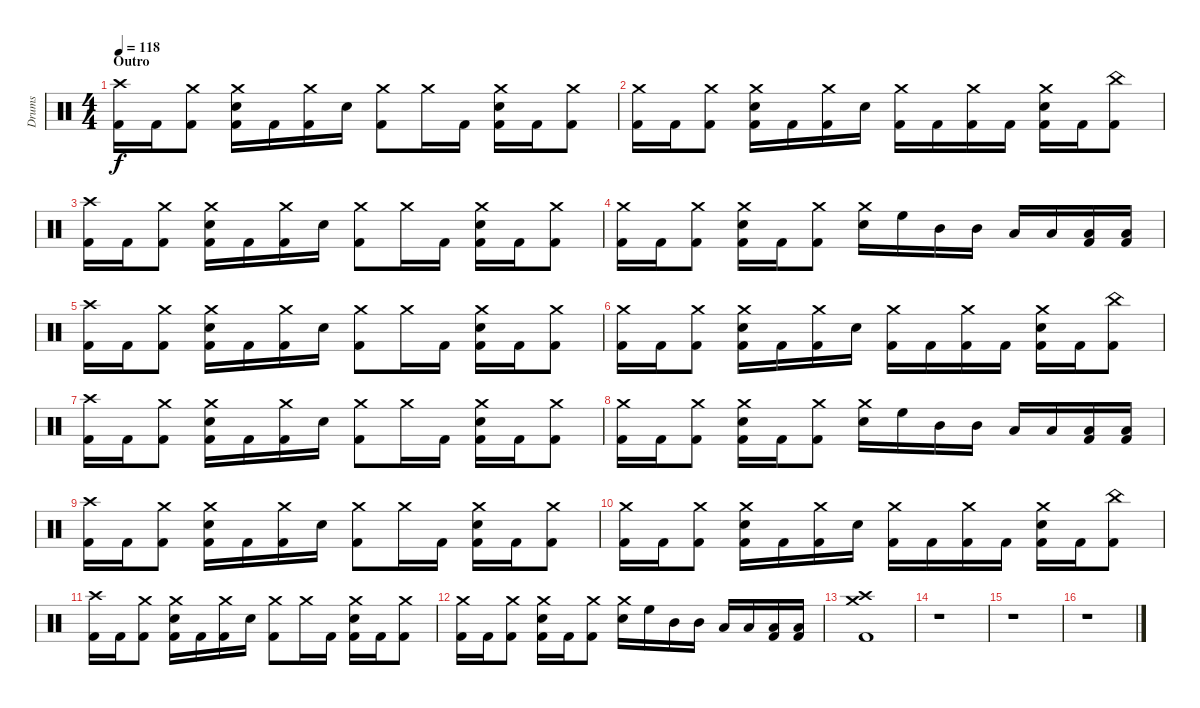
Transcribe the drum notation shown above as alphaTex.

\track ("Drums" "Drums") {instrument percussion}
\staff {score}
\articulation defaults
\ts (4 4)
\section ("" "Outro")
\tempo 118
\clef neutral
\ks c
("Crash high (hit)" "Kick (hit) 2").16{dy f} "Kick (hit) 2".16 ("Crash medium (hit)" "Kick (hit) 2").8 ("Crash medium (hit)" "Snare (hit) 2" "Kick (hit) 2").16 "Kick (hit) 2".16 ("Crash medium (hit)" "Kick (hit) 2").16 "Snare (hit) 2".16 ("Crash medium (hit)" "Kick (hit) 2").8 "Crash medium (hit)".16 "Kick (hit) 2".16 ("Crash medium (hit)" "Snare (hit) 2" "Kick (hit) 2").16 "Kick (hit) 2".16 ("Crash medium (hit)" "Kick (hit) 2").8 |
("Crash medium (hit)" "Kick (hit) 2").16 "Kick (hit) 2".16 ("Crash medium (hit)" "Kick (hit) 2").8 ("Crash medium (hit)" "Snare (hit) 2" "Kick (hit) 2").16 "Kick (hit) 2".16 ("Crash medium (hit)" "Kick (hit) 2").16 "Snare (hit) 2".16 ("Crash medium (hit)" "Kick (hit) 2").16 "Kick (hit) 2".16 ("Crash medium (hit)" "Kick (hit) 2").16 "Kick (hit) 2".16 ("Crash medium (hit)" "Snare (hit) 2" "Kick (hit) 2").16 "Kick (hit) 2".16 ("China (hit)" "Kick (hit) 2").8 |
("Crash high (hit)" "Kick (hit) 2").16 "Kick (hit) 2".16 ("Crash medium (hit)" "Kick (hit) 2").8 ("Crash medium (hit)" "Snare (hit) 2" "Kick (hit) 2").16 "Kick (hit) 2".16 ("Crash medium (hit)" "Kick (hit) 2").16 "Snare (hit) 2".16 ("Crash medium (hit)" "Kick (hit) 2").8 "Crash medium (hit)".16 "Kick (hit) 2".16 ("Crash medium (hit)" "Snare (hit) 2" "Kick (hit) 2").16 "Kick (hit) 2".16 ("Crash medium (hit)" "Kick (hit) 2").8 |
("Crash medium (hit)" "Kick (hit) 2").16 "Kick (hit) 2".16 ("Crash medium (hit)" "Kick (hit) 2").8 ("Crash medium (hit)" "Snare (hit) 2" "Kick (hit) 2").16 "Kick (hit) 2".16 ("Crash medium (hit)" "Kick (hit) 2").8 ("Crash medium (hit)" "Snare (hit) 2").16 "High Floor Tom (hit)".16 "Mid Tom (hit)".16 "Mid Tom (hit)".16 "Low Tom (hit)".16 "Low Tom (hit)".16 ("Low Floor Tom (hit)" "Kick (hit) 2").16 ("Low Floor Tom (hit)" "Kick (hit) 2").16 |
("Crash high (hit)" "Kick (hit) 2").16 "Kick (hit) 2".16 ("Crash medium (hit)" "Kick (hit) 2").8 ("Crash medium (hit)" "Snare (hit) 2" "Kick (hit) 2").16 "Kick (hit) 2".16 ("Crash medium (hit)" "Kick (hit) 2").16 "Snare (hit) 2".16 ("Crash medium (hit)" "Kick (hit) 2").8 "Crash medium (hit)".16 "Kick (hit) 2".16 ("Crash medium (hit)" "Snare (hit) 2" "Kick (hit) 2").16 "Kick (hit) 2".16 ("Crash medium (hit)" "Kick (hit) 2").8 |
("Crash medium (hit)" "Kick (hit) 2").16 "Kick (hit) 2".16 ("Crash medium (hit)" "Kick (hit) 2").8 ("Crash medium (hit)" "Snare (hit) 2" "Kick (hit) 2").16 "Kick (hit) 2".16 ("Crash medium (hit)" "Kick (hit) 2").16 "Snare (hit) 2".16 ("Crash medium (hit)" "Kick (hit) 2").16 "Kick (hit) 2".16 ("Crash medium (hit)" "Kick (hit) 2").16 "Kick (hit) 2".16 ("Crash medium (hit)" "Snare (hit) 2" "Kick (hit) 2").16 "Kick (hit) 2".16 ("China (hit)" "Kick (hit) 2").8 |
("Crash high (hit)" "Kick (hit) 2").16 "Kick (hit) 2".16 ("Crash medium (hit)" "Kick (hit) 2").8 ("Crash medium (hit)" "Snare (hit) 2" "Kick (hit) 2").16 "Kick (hit) 2".16 ("Crash medium (hit)" "Kick (hit) 2").16 "Snare (hit) 2".16 ("Crash medium (hit)" "Kick (hit) 2").8 "Crash medium (hit)".16 "Kick (hit) 2".16 ("Crash medium (hit)" "Snare (hit) 2" "Kick (hit) 2").16 "Kick (hit) 2".16 ("Crash medium (hit)" "Kick (hit) 2").8 |
("Crash medium (hit)" "Kick (hit) 2").16 "Kick (hit) 2".16 ("Crash medium (hit)" "Kick (hit) 2").8 ("Crash medium (hit)" "Snare (hit) 2" "Kick (hit) 2").16 "Kick (hit) 2".16 ("Crash medium (hit)" "Kick (hit) 2").8 ("Crash medium (hit)" "Snare (hit) 2").16 "High Floor Tom (hit)".16 "Mid Tom (hit)".16 "Mid Tom (hit)".16 "Low Tom (hit)".16 "Low Tom (hit)".16 ("Low Floor Tom (hit)" "Kick (hit) 2").16 ("Low Floor Tom (hit)" "Kick (hit) 2").16 |
("Crash high (hit)" "Kick (hit) 2").16 "Kick (hit) 2".16 ("Crash medium (hit)" "Kick (hit) 2").8 ("Crash medium (hit)" "Snare (hit) 2" "Kick (hit) 2").16 "Kick (hit) 2".16 ("Crash medium (hit)" "Kick (hit) 2").16 "Snare (hit) 2".16 ("Crash medium (hit)" "Kick (hit) 2").8 "Crash medium (hit)".16 "Kick (hit) 2".16 ("Crash medium (hit)" "Snare (hit) 2" "Kick (hit) 2").16 "Kick (hit) 2".16 ("Crash medium (hit)" "Kick (hit) 2").8 |
("Crash medium (hit)" "Kick (hit) 2").16 "Kick (hit) 2".16 ("Crash medium (hit)" "Kick (hit) 2").8 ("Crash medium (hit)" "Snare (hit) 2" "Kick (hit) 2").16 "Kick (hit) 2".16 ("Crash medium (hit)" "Kick (hit) 2").16 "Snare (hit) 2".16 ("Crash medium (hit)" "Kick (hit) 2").16 "Kick (hit) 2".16 ("Crash medium (hit)" "Kick (hit) 2").16 "Kick (hit) 2".16 ("Crash medium (hit)" "Snare (hit) 2" "Kick (hit) 2").16 "Kick (hit) 2".16 ("China (hit)" "Kick (hit) 2").8 |
("Crash high (hit)" "Kick (hit) 2").16 "Kick (hit) 2".16 ("Crash medium (hit)" "Kick (hit) 2").8 ("Crash medium (hit)" "Snare (hit) 2" "Kick (hit) 2").16 "Kick (hit) 2".16 ("Crash medium (hit)" "Kick (hit) 2").16 "Snare (hit) 2".16 ("Crash medium (hit)" "Kick (hit) 2").8 "Crash medium (hit)".16 "Kick (hit) 2".16 ("Crash medium (hit)" "Snare (hit) 2" "Kick (hit) 2").16 "Kick (hit) 2".16 ("Crash medium (hit)" "Kick (hit) 2").8 |
("Crash medium (hit)" "Kick (hit) 2").16 "Kick (hit) 2".16 ("Crash medium (hit)" "Kick (hit) 2").8 ("Crash medium (hit)" "Snare (hit) 2" "Kick (hit) 2").16 "Kick (hit) 2".16 ("Crash medium (hit)" "Kick (hit) 2").8 ("Crash medium (hit)" "Snare (hit) 2").16 "High Floor Tom (hit)".16 "Mid Tom (hit)".16 "Mid Tom (hit)".16 "Low Tom (hit)".16 "Low Tom (hit)".16 ("Low Floor Tom (hit)" "Kick (hit) 2").16 ("Low Floor Tom (hit)" "Kick (hit) 2").16 |
("Crash high (hit)" "Crash medium (hit)" "Kick (hit) 2").1 |
r.1 |
r.1 |
r.1
